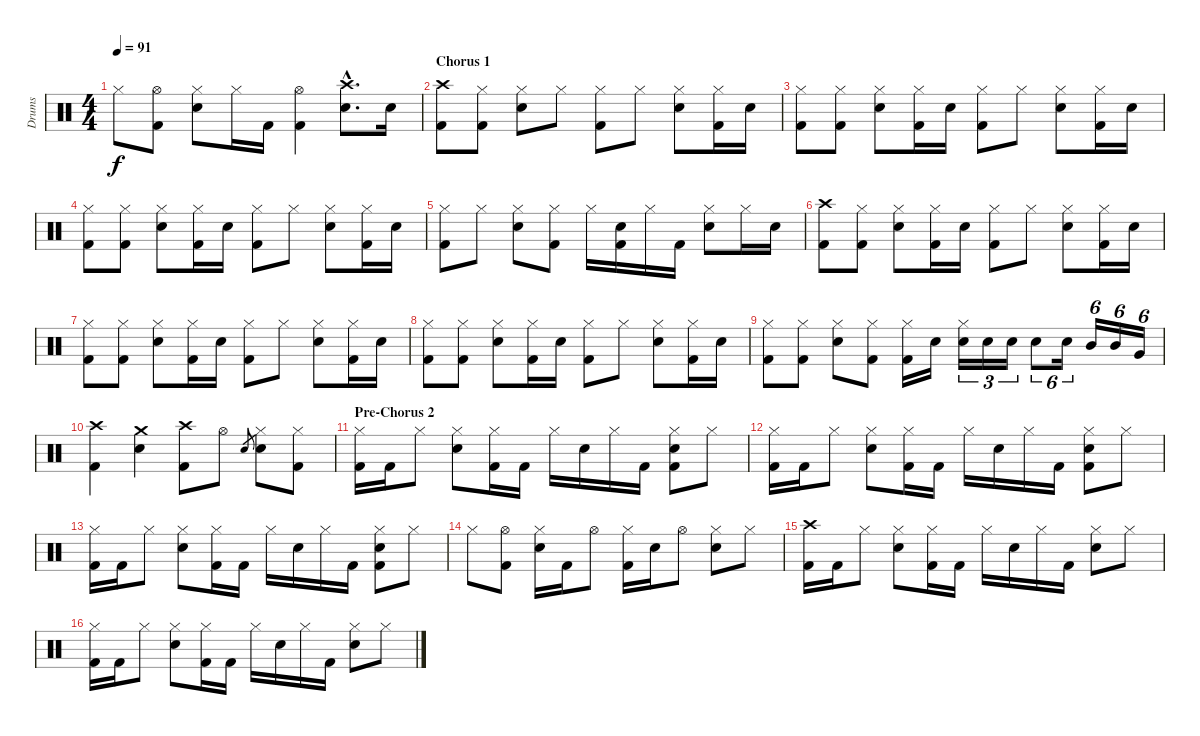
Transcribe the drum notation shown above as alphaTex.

\track ("Drums" "Drums") {instrument percussion}
\staff {score}
\articulation defaults
\ts (4 4)
\tempo 91
\clef neutral
\ks c "Hi-Hat (closed)".8{dy f}
("Hi-Hat (open)" "Kick (hit) 2").8 ("Hi-Hat (closed)" "Electric Snare (hit)").8 "Hi-Hat (closed)".16 "Kick (hit) 2".16 ("Hi-Hat (open)" "Kick (hit) 2").4 ("Crash high (hit)"{hac} "Electric Snare (hit)"{hac}).8{d} "Electric Snare (hit)".16 |
\section ("" "Chorus 1")
("Crash high (hit)" "Kick (hit) 2").8 ("Hi-Hat (closed)" "Kick (hit) 2").8 ("Hi-Hat (closed)" "Electric Snare (hit)").8 "Hi-Hat (closed)".8 ("Hi-Hat (closed)" "Kick (hit) 2").8 "Hi-Hat (closed)".8 ("Hi-Hat (closed)" "Electric Snare (hit)").8 ("Hi-Hat (closed)" "Kick (hit) 2").16 "Electric Snare (hit)".16 |
("Hi-Hat (closed)" "Kick (hit) 2").8 ("Hi-Hat (closed)" "Kick (hit) 2").8 ("Hi-Hat (closed)" "Electric Snare (hit)").8 ("Hi-Hat (closed)" "Kick (hit) 2").16 "Electric Snare (hit)".16 ("Hi-Hat (closed)" "Kick (hit) 2").8 "Hi-Hat (closed)".8 ("Hi-Hat (closed)" "Electric Snare (hit)").8 ("Hi-Hat (closed)" "Kick (hit) 2").16 "Electric Snare (hit)".16 |
("Hi-Hat (closed)" "Kick (hit) 2").8 ("Hi-Hat (closed)" "Kick (hit) 2").8 ("Hi-Hat (closed)" "Electric Snare (hit)").8 ("Hi-Hat (closed)" "Kick (hit) 2").16 "Electric Snare (hit)".16 ("Hi-Hat (closed)" "Kick (hit) 2").8 "Hi-Hat (closed)".8 ("Hi-Hat (closed)" "Electric Snare (hit)").8 ("Hi-Hat (closed)" "Kick (hit) 2").16 "Electric Snare (hit)".16 |
("Hi-Hat (closed)" "Kick (hit) 2").8 "Hi-Hat (closed)".8 ("Hi-Hat (closed)" "Electric Snare (hit)").8 ("Hi-Hat (closed)" "Kick (hit) 2").8 "Hi-Hat (closed)".16 ("Electric Snare (hit)" "Kick (hit) 2").16 "Hi-Hat (closed)".16 "Kick (hit) 2".16 ("Hi-Hat (closed)" "Electric Snare (hit)").8 "Hi-Hat (closed)".16 "Electric Snare (hit)".16 |
("Crash high (hit)" "Kick (hit) 2").8 ("Hi-Hat (closed)" "Kick (hit) 2").8 ("Hi-Hat (closed)" "Electric Snare (hit)").8 ("Hi-Hat (closed)" "Kick (hit) 2").16 "Electric Snare (hit)".16 ("Hi-Hat (closed)" "Kick (hit) 2").8 "Hi-Hat (closed)".8 ("Hi-Hat (closed)" "Electric Snare (hit)").8 ("Hi-Hat (closed)" "Kick (hit) 2").16 "Electric Snare (hit)".16 |
("Hi-Hat (closed)" "Kick (hit) 2").8 ("Hi-Hat (closed)" "Kick (hit) 2").8 ("Hi-Hat (closed)" "Electric Snare (hit)").8 ("Hi-Hat (closed)" "Kick (hit) 2").16 "Electric Snare (hit)".16 ("Hi-Hat (closed)" "Kick (hit) 2").8 "Hi-Hat (closed)".8 ("Hi-Hat (closed)" "Electric Snare (hit)").8 ("Hi-Hat (closed)" "Kick (hit) 2").16 "Electric Snare (hit)".16 |
("Hi-Hat (closed)" "Kick (hit) 2").8 ("Hi-Hat (closed)" "Kick (hit) 2").8 ("Hi-Hat (closed)" "Electric Snare (hit)").8 ("Hi-Hat (closed)" "Kick (hit) 2").16 "Electric Snare (hit)".16 ("Hi-Hat (closed)" "Kick (hit) 2").8 "Hi-Hat (closed)".8 ("Hi-Hat (closed)" "Electric Snare (hit)").8 ("Hi-Hat (closed)" "Kick (hit) 2").16 "Electric Snare (hit)".16 |
("Hi-Hat (closed)" "Kick (hit) 2").8 ("Hi-Hat (closed)" "Kick (hit) 2").8 ("Hi-Hat (closed)" "Electric Snare (hit)").8 ("Hi-Hat (closed)" "Kick (hit) 2").8 ("Hi-Hat (closed)" "Kick (hit) 2").16 "Electric Snare (hit)".16 ("Hi-Hat (closed)" "Electric Snare (hit)").16{tu (3 2)} "Electric Snare (hit)".16{tu (3 2)} "Electric Snare (hit)".16{tu (3 2)} "Electric Snare (hit)".8{tu (6 4)} "Electric Snare (hit)".16{tu (6 4)} "Mid Tom (hit)".16{tu (6 4)} "Mid Tom (hit)".16{tu (6 4)} "Very Low Tom (hit)".16{tu (6 4)} |
("Crash high (hit)" "Kick (hit) 2").4 ("Crash medium (hit)" "Electric Snare (hit)").4 ("Crash high (hit)" "Kick (hit) 2").8 "Hi-Hat (open)".8 "Electric Snare (hit)".8{gr} ("Hi-Hat (closed)" "Electric Snare (hit)").8 ("Hi-Hat (closed)" "Kick (hit) 2").8 |
\section ("" "Pre-Chorus 2")
("Hi-Hat (closed)" "Kick (hit) 2").16 "Kick (hit) 2".16 "Hi-Hat (closed)".8 ("Hi-Hat (closed)" "Electric Snare (hit)").8 ("Hi-Hat (closed)" "Kick (hit) 2").16 "Kick (hit) 2".16 "Hi-Hat (closed)".16 "Electric Snare (hit)".16 "Hi-Hat (closed)".16 "Kick (hit) 2".16 ("Hi-Hat (closed)" "Electric Snare (hit)" "Kick (hit) 2").8 "Hi-Hat (closed)".8 |
("Hi-Hat (closed)" "Kick (hit) 2").16 "Kick (hit) 2".16 "Hi-Hat (closed)".8 ("Hi-Hat (closed)" "Electric Snare (hit)").8 ("Hi-Hat (closed)" "Kick (hit) 2").16 "Kick (hit) 2".16 "Hi-Hat (closed)".16 "Electric Snare (hit)".16 "Hi-Hat (closed)".16 "Kick (hit) 2".16 ("Hi-Hat (closed)" "Electric Snare (hit)" "Kick (hit) 2").8 "Hi-Hat (closed)".8 |
("Hi-Hat (closed)" "Kick (hit) 2").16 "Kick (hit) 2".16 "Hi-Hat (closed)".8 ("Hi-Hat (closed)" "Electric Snare (hit)").8 ("Hi-Hat (closed)" "Kick (hit) 2").16 "Kick (hit) 2".16 "Hi-Hat (closed)".16 "Electric Snare (hit)".16 "Hi-Hat (closed)".16 "Kick (hit) 2".16 ("Hi-Hat (closed)" "Electric Snare (hit)" "Kick (hit) 2").8 "Hi-Hat (closed)".8 |
"Hi-Hat (closed)".8 ("Hi-Hat (open)" "Kick (hit) 2").8 ("Hi-Hat (closed)" "Electric Snare (hit)").16 "Kick (hit) 2".16 "Hi-Hat (open)".8 ("Hi-Hat (closed)" "Kick (hit) 2").16 "Electric Snare (hit)".16 "Hi-Hat (open)".8 ("Hi-Hat (closed)" "Electric Snare (hit)").8 "Hi-Hat (closed)".8 |
("Crash high (hit)" "Kick (hit) 2").16 "Kick (hit) 2".16 "Hi-Hat (closed)".8 ("Hi-Hat (closed)" "Electric Snare (hit)").8 ("Hi-Hat (closed)" "Kick (hit) 2").16 "Kick (hit) 2".16 "Hi-Hat (closed)".16 "Electric Snare (hit)".16 "Hi-Hat (closed)".16 "Kick (hit) 2".16 ("Hi-Hat (closed)" "Electric Snare (hit)").8 "Hi-Hat (closed)".8 |
("Hi-Hat (closed)" "Kick (hit) 2").16 "Kick (hit) 2".16 "Hi-Hat (closed)".8 ("Hi-Hat (closed)" "Electric Snare (hit)").8 ("Hi-Hat (closed)" "Kick (hit) 2").16 "Kick (hit) 2".16 "Hi-Hat (closed)".16 "Electric Snare (hit)".16 "Hi-Hat (closed)".16 "Kick (hit) 2".16 ("Hi-Hat (closed)" "Electric Snare (hit)").8 "Hi-Hat (closed)".8
